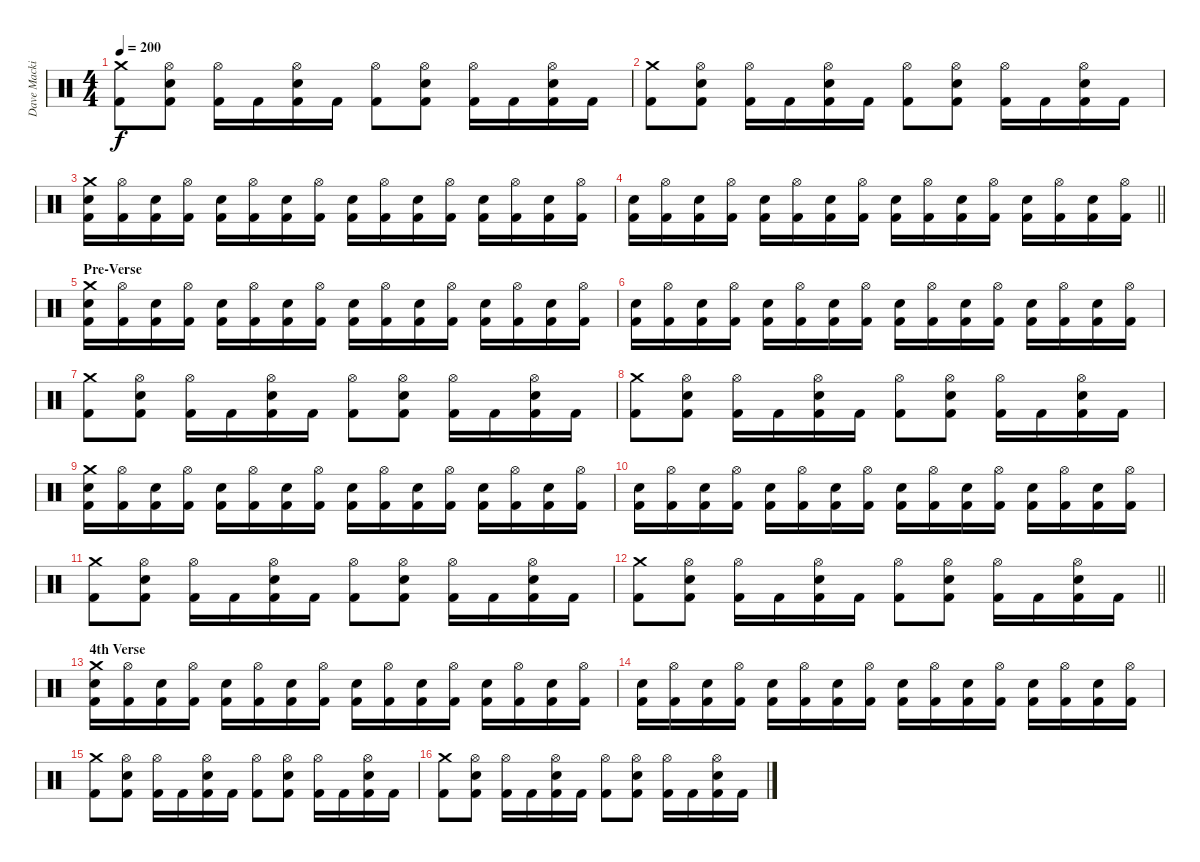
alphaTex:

\track ("Dave Mackintosh | Drums" "Dave Macki") {instrument percussion}
\staff {score}
\articulation defaults
\ts (4 4)
\tempo 200
\clef neutral
\ks c
("Crash medium (hit)" "Kick (hit) 2").8{dy f} ("Hi-Hat (open)" "Snare (hit) 2" "Kick (hit) 2").8 ("Hi-Hat (open)" "Kick (hit) 2").16 "Kick (hit) 2".16 ("Hi-Hat (open)" "Snare (hit) 2" "Kick (hit) 2").16 "Kick (hit) 2".16 ("Hi-Hat (open)" "Kick (hit) 2").8 ("Hi-Hat (open)" "Snare (hit) 2" "Kick (hit) 2").8 ("Hi-Hat (open)" "Kick (hit) 2").16 "Kick (hit) 2".16 ("Hi-Hat (open)" "Snare (hit) 2" "Kick (hit) 2").16 "Kick (hit) 2".16 |
("Crash medium (hit)" "Kick (hit) 2").8 ("Hi-Hat (open)" "Snare (hit) 2" "Kick (hit) 2").8 ("Hi-Hat (open)" "Kick (hit) 2").16 "Kick (hit) 2".16 ("Hi-Hat (open)" "Snare (hit) 2" "Kick (hit) 2").16 "Kick (hit) 2".16 ("Hi-Hat (open)" "Kick (hit) 2").8 ("Hi-Hat (open)" "Snare (hit) 2" "Kick (hit) 2").8 ("Hi-Hat (open)" "Kick (hit) 2").16 "Kick (hit) 2".16 ("Hi-Hat (open)" "Snare (hit) 2" "Kick (hit) 2").16 "Kick (hit) 2".16 |
("Crash medium (hit)" "Snare (hit) 2" "Kick (hit) 2").16 ("Hi-Hat (open)" "Kick (hit) 2").16 ("Snare (hit) 2" "Kick (hit) 2").16 ("Hi-Hat (open)" "Kick (hit) 2").16 ("Snare (hit) 2" "Kick (hit) 2").16 ("Hi-Hat (open)" "Kick (hit) 2").16 ("Snare (hit) 2" "Kick (hit) 2").16 ("Hi-Hat (open)" "Kick (hit) 2").16 ("Snare (hit) 2" "Kick (hit) 2").16 ("Hi-Hat (open)" "Kick (hit) 2").16 ("Snare (hit) 2" "Kick (hit) 2").16 ("Hi-Hat (open)" "Kick (hit) 2").16 ("Snare (hit) 2" "Kick (hit) 2").16 ("Hi-Hat (open)" "Kick (hit) 2").16 ("Snare (hit) 2" "Kick (hit) 2").16 ("Hi-Hat (open)" "Kick (hit) 2").16 |
\barLineRight lightlight
("Snare (hit) 2" "Kick (hit) 2").16 ("Hi-Hat (open)" "Kick (hit) 2").16 ("Snare (hit) 2" "Kick (hit) 2").16 ("Hi-Hat (open)" "Kick (hit) 2").16 ("Snare (hit) 2" "Kick (hit) 2").16 ("Hi-Hat (open)" "Kick (hit) 2").16 ("Snare (hit) 2" "Kick (hit) 2").16 ("Hi-Hat (open)" "Kick (hit) 2").16 ("Snare (hit) 2" "Kick (hit) 2").16 ("Hi-Hat (open)" "Kick (hit) 2").16 ("Snare (hit) 2" "Kick (hit) 2").16 ("Hi-Hat (open)" "Kick (hit) 2").16 ("Snare (hit) 2" "Kick (hit) 2").16 ("Hi-Hat (open)" "Kick (hit) 2").16 ("Snare (hit) 2" "Kick (hit) 2").16 ("Hi-Hat (open)" "Kick (hit) 2").16 |
\section ("" "Pre-Verse")
("Crash medium (hit)" "Snare (hit) 2" "Kick (hit) 2").16 ("Hi-Hat (open)" "Kick (hit) 2").16 ("Snare (hit) 2" "Kick (hit) 2").16 ("Hi-Hat (open)" "Kick (hit) 2").16 ("Snare (hit) 2" "Kick (hit) 2").16 ("Hi-Hat (open)" "Kick (hit) 2").16 ("Snare (hit) 2" "Kick (hit) 2").16 ("Hi-Hat (open)" "Kick (hit) 2").16 ("Snare (hit) 2" "Kick (hit) 2").16 ("Hi-Hat (open)" "Kick (hit) 2").16 ("Snare (hit) 2" "Kick (hit) 2").16 ("Hi-Hat (open)" "Kick (hit) 2").16 ("Snare (hit) 2" "Kick (hit) 2").16 ("Hi-Hat (open)" "Kick (hit) 2").16 ("Snare (hit) 2" "Kick (hit) 2").16 ("Hi-Hat (open)" "Kick (hit) 2").16 |
("Snare (hit) 2" "Kick (hit) 2").16 ("Hi-Hat (open)" "Kick (hit) 2").16 ("Snare (hit) 2" "Kick (hit) 2").16 ("Hi-Hat (open)" "Kick (hit) 2").16 ("Snare (hit) 2" "Kick (hit) 2").16 ("Hi-Hat (open)" "Kick (hit) 2").16 ("Snare (hit) 2" "Kick (hit) 2").16 ("Hi-Hat (open)" "Kick (hit) 2").16 ("Snare (hit) 2" "Kick (hit) 2").16 ("Hi-Hat (open)" "Kick (hit) 2").16 ("Snare (hit) 2" "Kick (hit) 2").16 ("Hi-Hat (open)" "Kick (hit) 2").16 ("Snare (hit) 2" "Kick (hit) 2").16 ("Hi-Hat (open)" "Kick (hit) 2").16 ("Snare (hit) 2" "Kick (hit) 2").16 ("Hi-Hat (open)" "Kick (hit) 2").16 |
("Crash medium (hit)" "Kick (hit) 2").8 ("Hi-Hat (open)" "Snare (hit) 2" "Kick (hit) 2").8 ("Hi-Hat (open)" "Kick (hit) 2").16 "Kick (hit) 2".16 ("Hi-Hat (open)" "Snare (hit) 2" "Kick (hit) 2").16 "Kick (hit) 2".16 ("Hi-Hat (open)" "Kick (hit) 2").8 ("Hi-Hat (open)" "Snare (hit) 2" "Kick (hit) 2").8 ("Hi-Hat (open)" "Kick (hit) 2").16 "Kick (hit) 2".16 ("Hi-Hat (open)" "Snare (hit) 2" "Kick (hit) 2").16 "Kick (hit) 2".16 |
("Crash medium (hit)" "Kick (hit) 2").8 ("Hi-Hat (open)" "Snare (hit) 2" "Kick (hit) 2").8 ("Hi-Hat (open)" "Kick (hit) 2").16 "Kick (hit) 2".16 ("Hi-Hat (open)" "Snare (hit) 2" "Kick (hit) 2").16 "Kick (hit) 2".16 ("Hi-Hat (open)" "Kick (hit) 2").8 ("Hi-Hat (open)" "Snare (hit) 2" "Kick (hit) 2").8 ("Hi-Hat (open)" "Kick (hit) 2").16 "Kick (hit) 2".16 ("Hi-Hat (open)" "Snare (hit) 2" "Kick (hit) 2").16 "Kick (hit) 2".16 |
("Crash medium (hit)" "Snare (hit) 2" "Kick (hit) 2").16 ("Hi-Hat (open)" "Kick (hit) 2").16 ("Snare (hit) 2" "Kick (hit) 2").16 ("Hi-Hat (open)" "Kick (hit) 2").16 ("Snare (hit) 2" "Kick (hit) 2").16 ("Hi-Hat (open)" "Kick (hit) 2").16 ("Snare (hit) 2" "Kick (hit) 2").16 ("Hi-Hat (open)" "Kick (hit) 2").16 ("Snare (hit) 2" "Kick (hit) 2").16 ("Hi-Hat (open)" "Kick (hit) 2").16 ("Snare (hit) 2" "Kick (hit) 2").16 ("Hi-Hat (open)" "Kick (hit) 2").16 ("Snare (hit) 2" "Kick (hit) 2").16 ("Hi-Hat (open)" "Kick (hit) 2").16 ("Snare (hit) 2" "Kick (hit) 2").16 ("Hi-Hat (open)" "Kick (hit) 2").16 |
("Snare (hit) 2" "Kick (hit) 2").16 ("Hi-Hat (open)" "Kick (hit) 2").16 ("Snare (hit) 2" "Kick (hit) 2").16 ("Hi-Hat (open)" "Kick (hit) 2").16 ("Snare (hit) 2" "Kick (hit) 2").16 ("Hi-Hat (open)" "Kick (hit) 2").16 ("Snare (hit) 2" "Kick (hit) 2").16 ("Hi-Hat (open)" "Kick (hit) 2").16 ("Snare (hit) 2" "Kick (hit) 2").16 ("Hi-Hat (open)" "Kick (hit) 2").16 ("Snare (hit) 2" "Kick (hit) 2").16 ("Hi-Hat (open)" "Kick (hit) 2").16 ("Snare (hit) 2" "Kick (hit) 2").16 ("Hi-Hat (open)" "Kick (hit) 2").16 ("Snare (hit) 2" "Kick (hit) 2").16 ("Hi-Hat (open)" "Kick (hit) 2").16 |
("Crash medium (hit)" "Kick (hit) 2").8 ("Hi-Hat (open)" "Snare (hit) 2" "Kick (hit) 2").8 ("Hi-Hat (open)" "Kick (hit) 2").16 "Kick (hit) 2".16 ("Hi-Hat (open)" "Snare (hit) 2" "Kick (hit) 2").16 "Kick (hit) 2".16 ("Hi-Hat (open)" "Kick (hit) 2").8 ("Hi-Hat (open)" "Snare (hit) 2" "Kick (hit) 2").8 ("Hi-Hat (open)" "Kick (hit) 2").16 "Kick (hit) 2".16 ("Hi-Hat (open)" "Snare (hit) 2" "Kick (hit) 2").16 "Kick (hit) 2".16 |
\barLineRight lightlight
("Crash medium (hit)" "Kick (hit) 2").8 ("Hi-Hat (open)" "Snare (hit) 2" "Kick (hit) 2").8 ("Hi-Hat (open)" "Kick (hit) 2").16 "Kick (hit) 2".16 ("Hi-Hat (open)" "Snare (hit) 2" "Kick (hit) 2").16 "Kick (hit) 2".16 ("Hi-Hat (open)" "Kick (hit) 2").8 ("Hi-Hat (open)" "Snare (hit) 2" "Kick (hit) 2").8 ("Hi-Hat (open)" "Kick (hit) 2").16 "Kick (hit) 2".16 ("Hi-Hat (open)" "Snare (hit) 2" "Kick (hit) 2").16 "Kick (hit) 2".16 |
\section ("" "4th Verse")
("Crash medium (hit)" "Snare (hit) 2" "Kick (hit) 2").16 ("Hi-Hat (open)" "Kick (hit) 2").16 ("Snare (hit) 2" "Kick (hit) 2").16 ("Hi-Hat (open)" "Kick (hit) 2").16 ("Snare (hit) 2" "Kick (hit) 2").16 ("Hi-Hat (open)" "Kick (hit) 2").16 ("Snare (hit) 2" "Kick (hit) 2").16 ("Hi-Hat (open)" "Kick (hit) 2").16 ("Snare (hit) 2" "Kick (hit) 2").16 ("Hi-Hat (open)" "Kick (hit) 2").16 ("Snare (hit) 2" "Kick (hit) 2").16 ("Hi-Hat (open)" "Kick (hit) 2").16 ("Snare (hit) 2" "Kick (hit) 2").16 ("Hi-Hat (open)" "Kick (hit) 2").16 ("Snare (hit) 2" "Kick (hit) 2").16 ("Hi-Hat (open)" "Kick (hit) 2").16 |
("Snare (hit) 2" "Kick (hit) 2").16 ("Hi-Hat (open)" "Kick (hit) 2").16 ("Snare (hit) 2" "Kick (hit) 2").16 ("Hi-Hat (open)" "Kick (hit) 2").16 ("Snare (hit) 2" "Kick (hit) 2").16 ("Hi-Hat (open)" "Kick (hit) 2").16 ("Snare (hit) 2" "Kick (hit) 2").16 ("Hi-Hat (open)" "Kick (hit) 2").16 ("Snare (hit) 2" "Kick (hit) 2").16 ("Hi-Hat (open)" "Kick (hit) 2").16 ("Snare (hit) 2" "Kick (hit) 2").16 ("Hi-Hat (open)" "Kick (hit) 2").16 ("Snare (hit) 2" "Kick (hit) 2").16 ("Hi-Hat (open)" "Kick (hit) 2").16 ("Snare (hit) 2" "Kick (hit) 2").16 ("Hi-Hat (open)" "Kick (hit) 2").16 |
("Crash medium (hit)" "Kick (hit) 2").8 ("Hi-Hat (open)" "Snare (hit) 2" "Kick (hit) 2").8 ("Hi-Hat (open)" "Kick (hit) 2").16 "Kick (hit) 2".16 ("Hi-Hat (open)" "Snare (hit) 2" "Kick (hit) 2").16 "Kick (hit) 2".16 ("Hi-Hat (open)" "Kick (hit) 2").8 ("Hi-Hat (open)" "Snare (hit) 2" "Kick (hit) 2").8 ("Hi-Hat (open)" "Kick (hit) 2").16 "Kick (hit) 2".16 ("Hi-Hat (open)" "Snare (hit) 2" "Kick (hit) 2").16 "Kick (hit) 2".16 |
("Crash medium (hit)" "Kick (hit) 2").8 ("Hi-Hat (open)" "Snare (hit) 2" "Kick (hit) 2").8 ("Hi-Hat (open)" "Kick (hit) 2").16 "Kick (hit) 2".16 ("Hi-Hat (open)" "Snare (hit) 2" "Kick (hit) 2").16 "Kick (hit) 2".16 ("Hi-Hat (open)" "Kick (hit) 2").8 ("Hi-Hat (open)" "Snare (hit) 2" "Kick (hit) 2").8 ("Hi-Hat (open)" "Kick (hit) 2").16 "Kick (hit) 2".16 ("Hi-Hat (open)" "Snare (hit) 2" "Kick (hit) 2").16 "Kick (hit) 2".16
